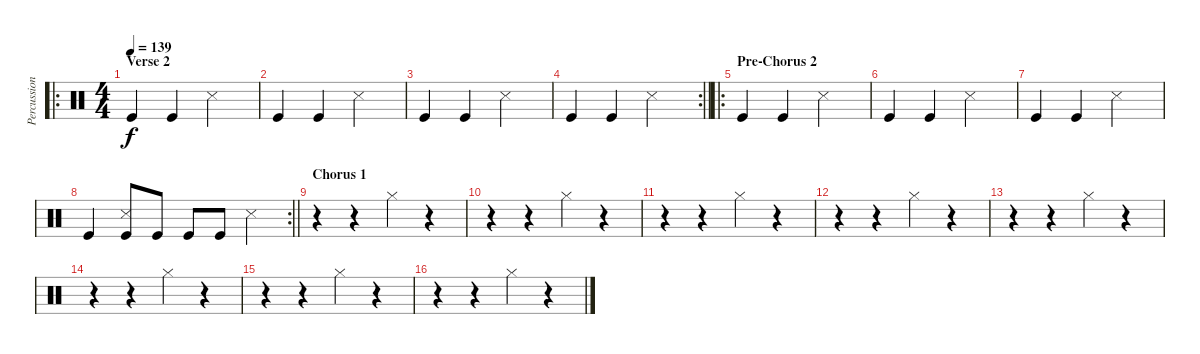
\track ("Percussion" "Percussion") {instrument percussion}
\staff {score}
\articulation defaults
\ro
\ts (4 4)
\section ("" "Verse 2")
\tempo 139
\clef neutral
\ks c "Kick (hit)".4{dy f volume 7} "Kick (hit)".4 "Snare (side stick) 3".2
|
"Kick (hit)".4 "Kick (hit)".4 "Snare (side stick) 3".2 |
"Kick (hit)".4 "Kick (hit)".4 "Snare (side stick) 3".2 |
\rc 2
\barLineRight lightlight "Kick (hit)".4 "Kick (hit)".4 "Snare (side stick) 3".2
|
\ro
\section ("" "Pre-Chorus 2")
"Kick (hit)".4 "Kick (hit)".4 "Snare (side stick) 3".2 |
"Kick (hit)".4 "Kick (hit)".4 "Snare (side stick) 3".2 |
"Kick (hit)".4 "Kick (hit)".4 "Snare (side stick) 3".2 |
\rc 2
\barLineRight lightlight "Kick (hit)".4
("Kick (hit)" "Snare (side stick) 3").8 "Kick (hit)".8 "Kick (hit)".8 "Kick (hit)".8 "Snare (side stick) 3".4 |
\section ("" "Chorus 1")
r.4{volume 10} r.4 "Hi-Hat (closed)".4 r.4 |
r.4 r.4 "Hi-Hat (closed)".4 r.4 |
r.4 r.4 "Hi-Hat (closed)".4 r.4 |
r.4 r.4 "Hi-Hat (closed)".4 r.4 |
r.4 r.4 "Hi-Hat (closed)".4 r.4 |
r.4 r.4 "Hi-Hat (closed)".4 r.4 |
r.4 r.4 "Hi-Hat (closed)".4 r.4 |
r.4 r.4 "Hi-Hat (closed)".4 r.4
